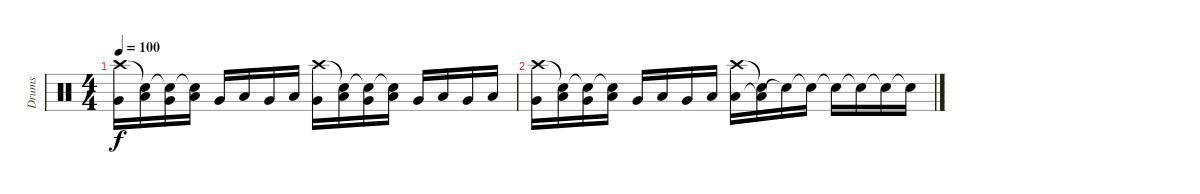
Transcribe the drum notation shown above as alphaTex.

\track ("Drums" "Drums") {instrument percussion}
\staff {score}
\articulation defaults
\ts (4 4)
\tempo 100
\clef neutral
\ks c
("Very Low Tom (hit)" "Crash high (hit)").16{dy f} ("Low Floor Tom (hit)" "Electric Snare (hit)"{t}).16 ("Very Low Tom (hit)" "Snare (hit)"{t}).16 ("Low Floor Tom (hit)" "Electric Snare (hit)"{t}).16 "Very Low Tom (hit)".16 "Low Floor Tom (hit)".16 "Very Low Tom (hit)".16 "Low Floor Tom (hit)".16 ("Very Low Tom (hit)" "Crash high (hit)").16 ("Low Floor Tom (hit)" "Electric Snare (hit)"{t}).16 ("Very Low Tom (hit)" "Snare (hit)"{t}).16 ("Low Floor Tom (hit)" "Electric Snare (hit)"{t}).16 "Very Low Tom (hit)".16 "Low Floor Tom (hit)".16 "Very Low Tom (hit)".16 "Low Floor Tom (hit)".16 |
("Very Low Tom (hit)" "Crash high (hit)").16 ("Low Floor Tom (hit)" "Electric Snare (hit)"{t}).16 ("Very Low Tom (hit)" "Snare (hit)"{t}).16 ("Low Floor Tom (hit)" "Electric Snare (hit)"{t}).16 "Very Low Tom (hit)".16 "Low Floor Tom (hit)".16 "Very Low Tom (hit)".16 "Low Floor Tom (hit)".16 ("Low Floor Tom (hit)" "Crash high (hit)").16 ("Low Floor Tom (hit)"{t} "Electric Snare (hit)"{t}).16 "Snare (hit)"{t}.16 "Electric Snare (hit)"{t}.16 "Snare (hit)"{t}.16 "Snare (hit)"{t}.16 "Snare (hit)"{t}.16 "Snare (hit)"{t}.16
